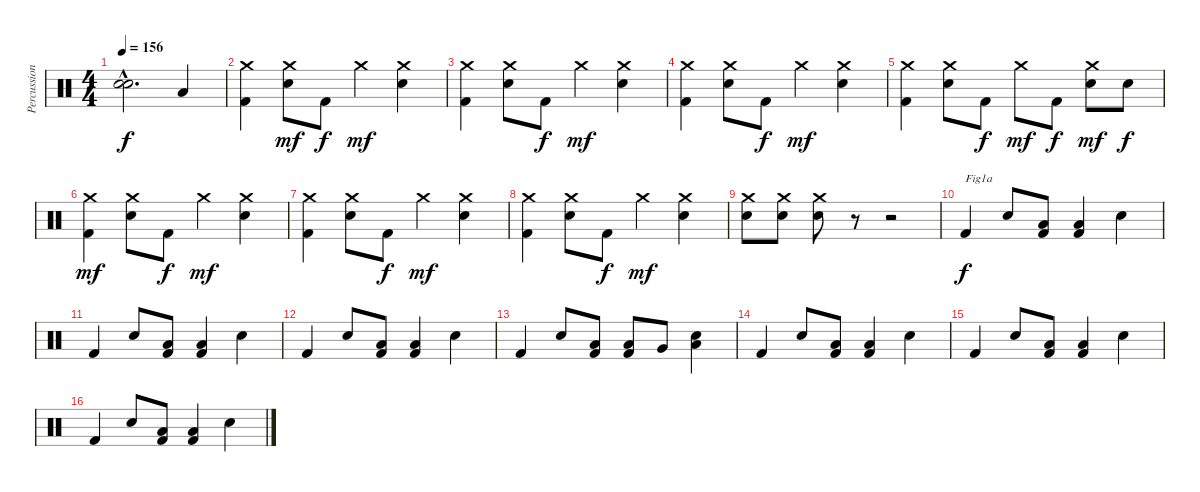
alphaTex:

\track ("Percussions" "Percussion") {instrument percussion}
\staff {score}
\articulation defaults
\ts (4 4)
\tempo 156
\clef neutral
\ks c
("Snare (hit)"{hac t} "Snare (hit)"{hac t}).2{d dy f} "Low Floor Tom (hit)".4 |
("Kick (hit) 2" "Crash medium (hit)").4 ("Electric Snare (hit)" "Crash medium (hit)").8{dy mf} "Kick (hit) 2".8{dy f} "Crash medium (hit)".4{dy mf} ("Electric Snare (hit)" "Crash medium (hit)").4 |
("Kick (hit) 2" "Crash medium (hit)").4 ("Electric Snare (hit)" "Crash medium (hit)").8 "Kick (hit) 2".8{dy f} "Crash medium (hit)".4{dy mf} ("Electric Snare (hit)" "Crash medium (hit)").4 |
("Kick (hit) 2" "Crash medium (hit)").4 ("Electric Snare (hit)" "Crash medium (hit)").8 "Kick (hit) 2".8{dy f} "Crash medium (hit)".4{dy mf} ("Electric Snare (hit)" "Crash medium (hit)").4 |
("Kick (hit) 2" "Crash medium (hit)").4 ("Electric Snare (hit)" "Crash medium (hit)").8 "Kick (hit) 2".8{dy f} "Crash medium (hit)".8{dy mf} "Kick (hit) 2".8{dy f} ("Electric Snare (hit)" "Crash medium (hit)").8{dy mf} "Electric Snare (hit)".8{dy f} |
("Kick (hit) 2" "Crash medium (hit)").4{dy mf} ("Electric Snare (hit)" "Crash medium (hit)").8 "Kick (hit) 2".8{dy f} "Crash medium (hit)".4{dy mf} ("Electric Snare (hit)" "Crash medium (hit)").4 |
("Kick (hit) 2" "Crash medium (hit)").4 ("Electric Snare (hit)" "Crash medium (hit)").8 "Kick (hit) 2".8{dy f} "Crash medium (hit)".4{dy mf} ("Electric Snare (hit)" "Crash medium (hit)").4 |
("Kick (hit) 2" "Crash medium (hit)").4 ("Electric Snare (hit)" "Crash medium (hit)").8 "Kick (hit) 2".8{dy f} "Crash medium (hit)".4{dy mf} ("Electric Snare (hit)" "Crash medium (hit)").4 |
("Electric Snare (hit)" "Crash medium (hit)").8 ("Electric Snare (hit)" "Crash medium (hit)").8 ("Electric Snare (hit)" "Crash medium (hit)").8 r.8 r.2 |
"Kick (hit) 2".4{txt "Fig1a" dy f} "Electric Snare (hit)".8 ("Kick (hit) 2" "Low Floor Tom (hit)").8 ("Kick (hit) 2" "Low Floor Tom (hit)").4 "Electric Snare (hit)".4 |
"Kick (hit) 2".4 "Electric Snare (hit)".8 ("Kick (hit) 2" "Low Floor Tom (hit)").8 ("Kick (hit) 2" "Low Floor Tom (hit)").4 "Electric Snare (hit)".4 |
"Kick (hit) 2".4 "Electric Snare (hit)".8 ("Kick (hit) 2" "Low Floor Tom (hit)").8 ("Kick (hit) 2" "Low Floor Tom (hit)").4 "Electric Snare (hit)".4 |
"Kick (hit) 2".4 "Electric Snare (hit)".8 ("Kick (hit) 2" "Low Floor Tom (hit)").8 ("Kick (hit) 2" "Low Floor Tom (hit)").8 "Very Low Tom (hit)".8 ("Electric Snare (hit)" "Low Floor Tom (hit)").4 |
"Kick (hit) 2".4 "Electric Snare (hit)".8 ("Kick (hit) 2" "Low Floor Tom (hit)").8 ("Kick (hit) 2" "Low Floor Tom (hit)").4 "Electric Snare (hit)".4 |
"Kick (hit) 2".4 "Electric Snare (hit)".8 ("Kick (hit) 2" "Low Floor Tom (hit)").8 ("Kick (hit) 2" "Low Floor Tom (hit)").4 "Electric Snare (hit)".4 |
"Kick (hit) 2".4 "Electric Snare (hit)".8 ("Kick (hit) 2" "Low Floor Tom (hit)").8 ("Kick (hit) 2" "Low Floor Tom (hit)").4 "Electric Snare (hit)".4
